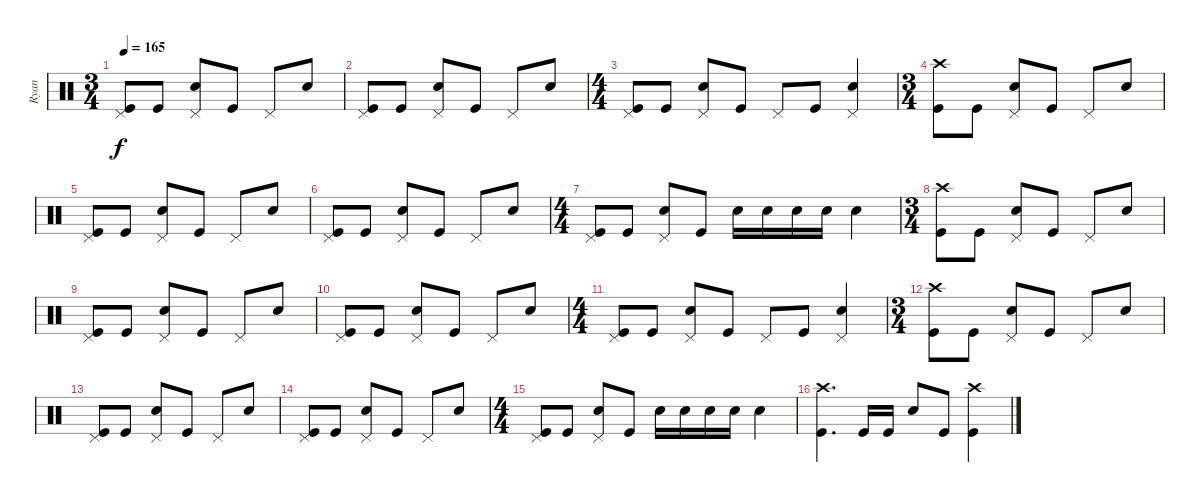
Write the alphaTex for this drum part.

\track ("Ryan" "Ryan") {instrument percussion}
\staff {score}
\articulation defaults
\ts (3 4)
\tempo 165
\clef neutral
\ks c
("Pedal Hi-Hat (hit)" "Kick (hit)").8{dy f} "Kick (hit)".8 ("Pedal Hi-Hat (hit)" "Electric Snare (hit)").8 "Kick (hit)".8 "Pedal Hi-Hat (hit)".8 "Electric Snare (hit)".8 |
("Pedal Hi-Hat (hit)" "Kick (hit)").8 "Kick (hit)".8 ("Pedal Hi-Hat (hit)" "Electric Snare (hit)").8 "Kick (hit)".8 "Pedal Hi-Hat (hit)".8 "Electric Snare (hit)".8 |
\ts (4 4)
("Pedal Hi-Hat (hit)" "Kick (hit)").8 "Kick (hit)".8 ("Pedal Hi-Hat (hit)" "Electric Snare (hit)").8 "Kick (hit)".8 "Pedal Hi-Hat (hit)".8 "Kick (hit)".8 ("Pedal Hi-Hat (hit)" "Electric Snare (hit)").4 |
\ts (3 4)
("Crash high (hit)" "Kick (hit)").8 "Kick (hit)".8 ("Pedal Hi-Hat (hit)" "Electric Snare (hit)").8 "Kick (hit)".8 "Pedal Hi-Hat (hit)".8 "Electric Snare (hit)".8 |
("Pedal Hi-Hat (hit)" "Kick (hit)").8 "Kick (hit)".8 ("Pedal Hi-Hat (hit)" "Electric Snare (hit)").8 "Kick (hit)".8 "Pedal Hi-Hat (hit)".8 "Electric Snare (hit)".8 |
("Pedal Hi-Hat (hit)" "Kick (hit)").8 "Kick (hit)".8 ("Pedal Hi-Hat (hit)" "Electric Snare (hit)").8 "Kick (hit)".8 "Pedal Hi-Hat (hit)".8 "Electric Snare (hit)".8 |
\ts (4 4)
("Pedal Hi-Hat (hit)" "Kick (hit)").8 "Kick (hit)".8 ("Pedal Hi-Hat (hit)" "Electric Snare (hit)").8 "Kick (hit)".8 "Electric Snare (hit)".16 "Electric Snare (hit)".16 "Electric Snare (hit)".16 "Electric Snare (hit)".16 "Electric Snare (hit)".4 |
\ts (3 4)
("Crash high (hit)" "Kick (hit)").8 "Kick (hit)".8 ("Pedal Hi-Hat (hit)" "Electric Snare (hit)").8 "Kick (hit)".8 "Pedal Hi-Hat (hit)".8 "Electric Snare (hit)".8 |
("Pedal Hi-Hat (hit)" "Kick (hit)").8 "Kick (hit)".8 ("Pedal Hi-Hat (hit)" "Electric Snare (hit)").8 "Kick (hit)".8 "Pedal Hi-Hat (hit)".8 "Electric Snare (hit)".8 |
("Pedal Hi-Hat (hit)" "Kick (hit)").8 "Kick (hit)".8 ("Pedal Hi-Hat (hit)" "Electric Snare (hit)").8 "Kick (hit)".8 "Pedal Hi-Hat (hit)".8 "Electric Snare (hit)".8 |
\ts (4 4)
("Pedal Hi-Hat (hit)" "Kick (hit)").8 "Kick (hit)".8 ("Pedal Hi-Hat (hit)" "Electric Snare (hit)").8 "Kick (hit)".8 "Pedal Hi-Hat (hit)".8 "Kick (hit)".8 ("Pedal Hi-Hat (hit)" "Electric Snare (hit)").4 |
\ts (3 4)
("Crash high (hit)" "Kick (hit)").8 "Kick (hit)".8 ("Pedal Hi-Hat (hit)" "Electric Snare (hit)").8 "Kick (hit)".8 "Pedal Hi-Hat (hit)".8 "Electric Snare (hit)".8 |
("Pedal Hi-Hat (hit)" "Kick (hit)").8 "Kick (hit)".8 ("Pedal Hi-Hat (hit)" "Electric Snare (hit)").8 "Kick (hit)".8 "Pedal Hi-Hat (hit)".8 "Electric Snare (hit)".8 |
("Pedal Hi-Hat (hit)" "Kick (hit)").8 "Kick (hit)".8 ("Pedal Hi-Hat (hit)" "Electric Snare (hit)").8 "Kick (hit)".8 "Pedal Hi-Hat (hit)".8 "Electric Snare (hit)".8 |
\ts (4 4)
("Pedal Hi-Hat (hit)" "Kick (hit)").8 "Kick (hit)".8 ("Pedal Hi-Hat (hit)" "Electric Snare (hit)").8 "Kick (hit)".8 "Electric Snare (hit)".16 "Electric Snare (hit)".16 "Electric Snare (hit)".16 "Electric Snare (hit)".16 "Electric Snare (hit)".4 |
("Crash high (hit)" "Kick (hit)").4{d} "Kick (hit)".16 "Kick (hit)".16 "Electric Snare (hit)".8 "Kick (hit)".8 ("Crash high (hit)" "Kick (hit)").4
